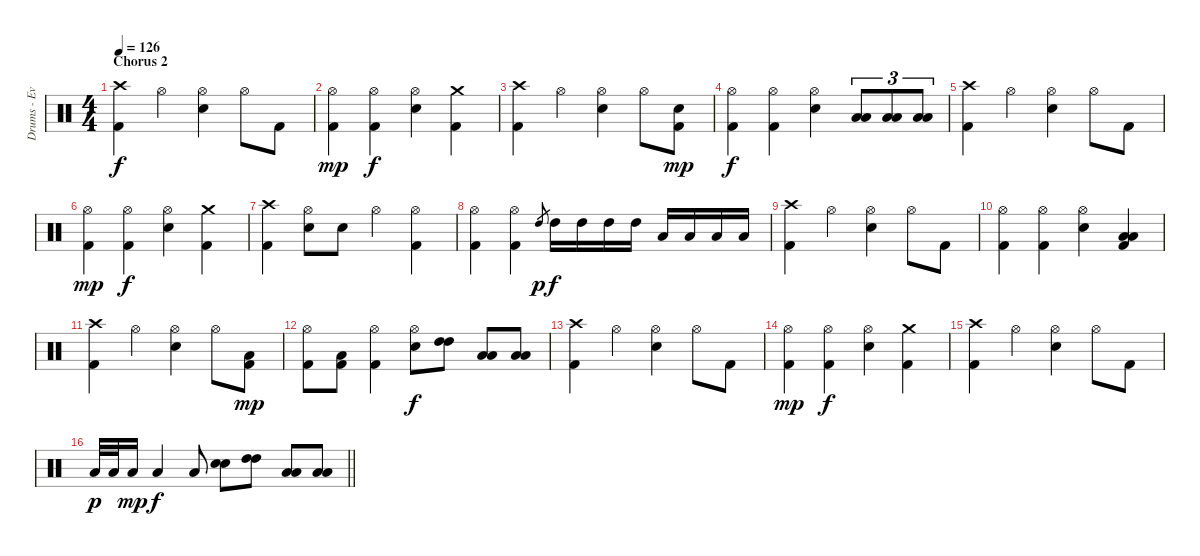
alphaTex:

\track ("Drums - Evans" "Drums - Ev") {instrument percussion}
\staff {score}
\articulation defaults
\ts (4 4)
\section ("" "Chorus 2")
\tempo 126
\clef neutral
\ks c
("Crash high (hit)" "Kick (hit) 2").4{dy f} "Hi-Hat (open)".4 ("Hi-Hat (open)" "Electric Snare (hit)").4 "Hi-Hat (open)".8 "Kick (hit) 2".8 |
("Hi-Hat (open)" "Kick (hit) 2").4{dy mp} ("Hi-Hat (open)" "Kick (hit) 2").4{dy f} ("Hi-Hat (open)" "Electric Snare (hit)").4 ("Crash medium (hit)" "Kick (hit) 2").4 |
("Crash high (hit)" "Kick (hit) 2").4 "Hi-Hat (open)".4 ("Hi-Hat (open)" "Electric Snare (hit)").4 "Hi-Hat (open)".8 ("Electric Snare (hit)" "Kick (hit) 2").8{dy mp} |
("Hi-Hat (open)" "Kick (hit) 2").4{dy f} ("Hi-Hat (open)" "Kick (hit) 2").4 ("Hi-Hat (open)" "Electric Snare (hit)").4 ("Low Floor Tom (hit)" "Low Tom (hit)").8{tu (3 2)} ("Low Floor Tom (hit)" "Low Tom (hit)").8{tu (3 2)} ("Low Floor Tom (hit)" "Low Tom (hit)").8{tu (3 2)} |
("Crash high (hit)" "Kick (hit) 2").4 "Hi-Hat (open)".4 ("Hi-Hat (open)" "Electric Snare (hit)").4 "Hi-Hat (open)".8 "Kick (hit) 2".8 |
("Hi-Hat (open)" "Kick (hit) 2").4{dy mp} ("Hi-Hat (open)" "Kick (hit) 2").4{dy f} ("Hi-Hat (open)" "Electric Snare (hit)").4 ("Crash medium (hit)" "Kick (hit) 2").4 |
("Crash high (hit)" "Kick (hit) 2").4 ("Hi-Hat (open)" "Electric Snare (hit)").8 "Electric Snare (hit)".8 "Hi-Hat (open)".4 ("Hi-Hat (open)" "Kick (hit) 2").4 |
("Hi-Hat (open)" "Kick (hit) 2").4 ("Hi-Hat (open)" "Kick (hit) 2").4 "High Tom (hit)".8{gr dy p} "High Tom (hit)".16{dy f} "High Tom (hit)".16 "High Tom (hit)".16 "High Tom (hit)".16 "Low Tom (hit)".16 "Low Tom (hit)".16 "Low Floor Tom (hit)".16 "Low Floor Tom (hit)".16 |
("Crash high (hit)" "Kick (hit) 2").4 "Hi-Hat (open)".4 ("Hi-Hat (open)" "Electric Snare (hit)").4 "Hi-Hat (open)".8 "Kick (hit) 2".8 |
("Hi-Hat (open)" "Kick (hit) 2").4 ("Hi-Hat (open)" "Kick (hit) 2").4 ("Hi-Hat (open)" "Electric Snare (hit)").4 ("Low Floor Tom (hit)" "Low Tom (hit)" "Kick (hit) 2").4 |
("Crash high (hit)" "Kick (hit) 2").4 "Hi-Hat (open)".4 ("Hi-Hat (open)" "Electric Snare (hit)").4 "Hi-Hat (open)".8 ("Low Tom (hit)" "Kick (hit) 2").8{dy mp} |
("Hi-Hat (open)" "Kick (hit) 2").8 ("Low Tom (hit)" "Kick (hit) 2").8 ("Hi-Hat (open)" "Kick (hit) 2").4 ("Hi-Hat (open)" "Electric Snare (hit)").8{dy f} ("High Tom (hit)" "High Tom (hit)").8 ("Low Tom (hit)" "Low Tom (hit)").8 ("Low Floor Tom (hit)" "Low Floor Tom (hit)").8 |
("Crash high (hit)" "Kick (hit) 2").4 "Hi-Hat (open)".4 ("Hi-Hat (open)" "Electric Snare (hit)").4 "Hi-Hat (open)".8 "Kick (hit) 2".8 |
("Hi-Hat (open)" "Kick (hit) 2").4{dy mp} ("Hi-Hat (open)" "Kick (hit) 2").4{dy f} ("Hi-Hat (open)" "Electric Snare (hit)").4 ("Crash medium (hit)" "Kick (hit) 2").4 |
("Crash high (hit)" "Kick (hit) 2").4 "Hi-Hat (open)".4 ("Hi-Hat (open)" "Electric Snare (hit)").4 "Hi-Hat (open)".8 "Kick (hit) 2".8 |
\barLineRight lightlight "Low Tom (hit)".32{dy p} "Low Tom (hit)".32 "Low Tom (hit)".16{dy mp} "Low Tom (hit)".4{dy f} "Low Tom (hit)".8
("Electric Snare (hit)" "Electric Snare (hit)").8 ("High Tom (hit)" "High Tom (hit)").8 ("Low Tom (hit)" "Low Tom (hit)").8 ("Low Floor Tom (hit)" "Low Floor Tom (hit)").8
